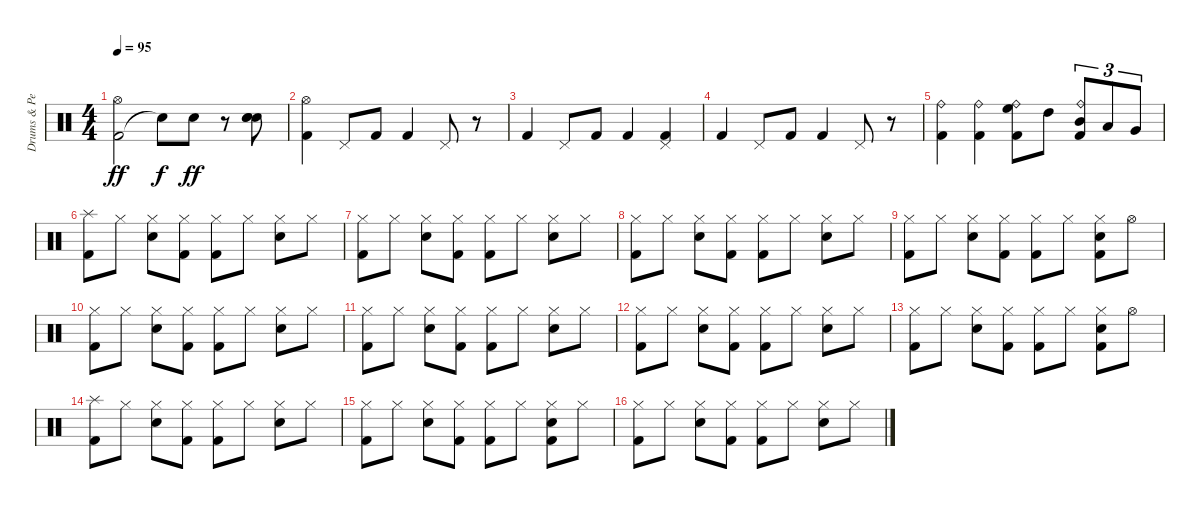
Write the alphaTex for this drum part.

\track ("Drums & Percussion" "Drums & Pe") {instrument percussion}
\staff {score}
\articulation defaults
\ts (4 4)
\tempo 95
\clef neutral
\ks c
("Kick (hit) 2" "Hi-Hat (open)").2{dy ff} "Snare (hit)"{t}.8{dy f} "Snare (hit) 2".8{dy ff} r.8 ("Snare (hit) 2" "Snare (hit) 2" "Snare (hit) 2").8 |
("Kick (hit) 2" "Hi-Hat (open)").4 "Pedal Hi-Hat (hit)".8 "Kick (hit) 2".8 "Kick (hit) 2".4 "Pedal Hi-Hat (hit)".8 r.8 |
"Kick (hit) 2".4 "Pedal Hi-Hat (hit)".8 "Kick (hit) 2".8 "Kick (hit) 2".4 ("Kick (hit) 2" "Pedal Hi-Hat (hit)").4 |
"Kick (hit) 2".4 "Pedal Hi-Hat (hit)".8 "Kick (hit) 2".8 "Kick (hit) 2".4 "Pedal Hi-Hat (hit)".8 r.8 |
("Kick (hit) 2" "Ride (bell)").4 ("Kick (hit) 2" "Ride (bell)").4 ("Kick (hit) 2" "Ride (bell)" "High Floor Tom (hit)").8 "High Tom (hit)".8 ("Kick (hit) 2" "Ride (bell)" "Mid Tom (hit)").8{tu (3 2)} "Low Tom (hit)".8{tu (3 2)} "Very Low Tom (hit)".8{tu (3 2)} |
("Kick (hit) 2" "Splash (hit)").8 "Hi-Hat (closed)".8 ("Hi-Hat (closed)" "Snare (hit) 2").8 ("Kick (hit) 2" "Hi-Hat (closed)").8 ("Kick (hit) 2" "Hi-Hat (closed)").8 "Hi-Hat (closed)".8 ("Hi-Hat (closed)" "Snare (hit) 2").8 "Hi-Hat (closed)".8 |
("Kick (hit) 2" "Hi-Hat (closed)").8 "Hi-Hat (closed)".8 ("Hi-Hat (closed)" "Snare (hit) 2").8 ("Kick (hit) 2" "Hi-Hat (closed)").8 ("Kick (hit) 2" "Hi-Hat (closed)").8 "Hi-Hat (closed)".8 ("Hi-Hat (closed)" "Snare (hit) 2").8 "Hi-Hat (closed)".8 |
("Kick (hit) 2" "Hi-Hat (closed)").8 "Hi-Hat (closed)".8 ("Hi-Hat (closed)" "Snare (hit) 2").8 ("Kick (hit) 2" "Hi-Hat (closed)").8 ("Kick (hit) 2" "Hi-Hat (closed)").8 "Hi-Hat (closed)".8 ("Hi-Hat (closed)" "Snare (hit) 2").8 "Hi-Hat (closed)".8 |
("Kick (hit) 2" "Hi-Hat (closed)").8 "Hi-Hat (closed)".8 ("Hi-Hat (closed)" "Snare (hit) 2").8 ("Kick (hit) 2" "Hi-Hat (closed)").8 ("Kick (hit) 2" "Hi-Hat (closed)").8 "Hi-Hat (closed)".8 ("Kick (hit) 2" "Hi-Hat (closed)" "Snare (hit) 2").8 "Hi-Hat (open)".8 |
("Kick (hit) 2" "Hi-Hat (closed)").8 "Hi-Hat (closed)".8 ("Hi-Hat (closed)" "Snare (hit) 2").8 ("Kick (hit) 2" "Hi-Hat (closed)").8 ("Kick (hit) 2" "Hi-Hat (closed)").8 "Hi-Hat (closed)".8 ("Hi-Hat (closed)" "Snare (hit) 2").8 "Hi-Hat (closed)".8 |
("Kick (hit) 2" "Hi-Hat (closed)").8 "Hi-Hat (closed)".8 ("Hi-Hat (closed)" "Snare (hit) 2").8 ("Kick (hit) 2" "Hi-Hat (closed)").8 ("Kick (hit) 2" "Hi-Hat (closed)").8 "Hi-Hat (closed)".8 ("Hi-Hat (closed)" "Snare (hit) 2").8 "Hi-Hat (closed)".8 |
("Kick (hit) 2" "Hi-Hat (closed)").8 "Hi-Hat (closed)".8 ("Hi-Hat (closed)" "Snare (hit) 2").8 ("Kick (hit) 2" "Hi-Hat (closed)").8 ("Kick (hit) 2" "Hi-Hat (closed)").8 "Hi-Hat (closed)".8 ("Hi-Hat (closed)" "Snare (hit) 2").8 "Hi-Hat (closed)".8 |
("Kick (hit) 2" "Hi-Hat (closed)").8 "Hi-Hat (closed)".8 ("Hi-Hat (closed)" "Snare (hit) 2").8 ("Kick (hit) 2" "Hi-Hat (closed)").8 ("Kick (hit) 2" "Hi-Hat (closed)").8 "Hi-Hat (closed)".8 ("Kick (hit) 2" "Hi-Hat (closed)" "Snare (hit) 2").8 "Hi-Hat (open)".8 |
("Kick (hit) 2" "Splash (hit)").8 "Hi-Hat (closed)".8 ("Snare (hit) 2" "Hi-Hat (closed)").8 ("Kick (hit) 2" "Hi-Hat (closed)").8 ("Kick (hit) 2" "Hi-Hat (closed)").8 "Hi-Hat (closed)".8 ("Snare (hit) 2" "Hi-Hat (closed)").8 "Hi-Hat (closed)".8 |
("Kick (hit) 2" "Hi-Hat (closed)").8 "Hi-Hat (closed)".8 ("Snare (hit) 2" "Hi-Hat (closed)").8 ("Kick (hit) 2" "Hi-Hat (closed)").8 ("Kick (hit) 2" "Hi-Hat (closed)").8 "Hi-Hat (closed)".8 ("Kick (hit) 2" "Snare (hit) 2" "Hi-Hat (closed)").8 "Hi-Hat (closed)".8 |
("Kick (hit) 2" "Hi-Hat (closed)").8 "Hi-Hat (closed)".8 ("Snare (hit) 2" "Hi-Hat (closed)").8 ("Kick (hit) 2" "Hi-Hat (closed)").8 ("Kick (hit) 2" "Hi-Hat (closed)").8 "Hi-Hat (closed)".8 ("Snare (hit) 2" "Hi-Hat (closed)").8 "Hi-Hat (closed)".8
